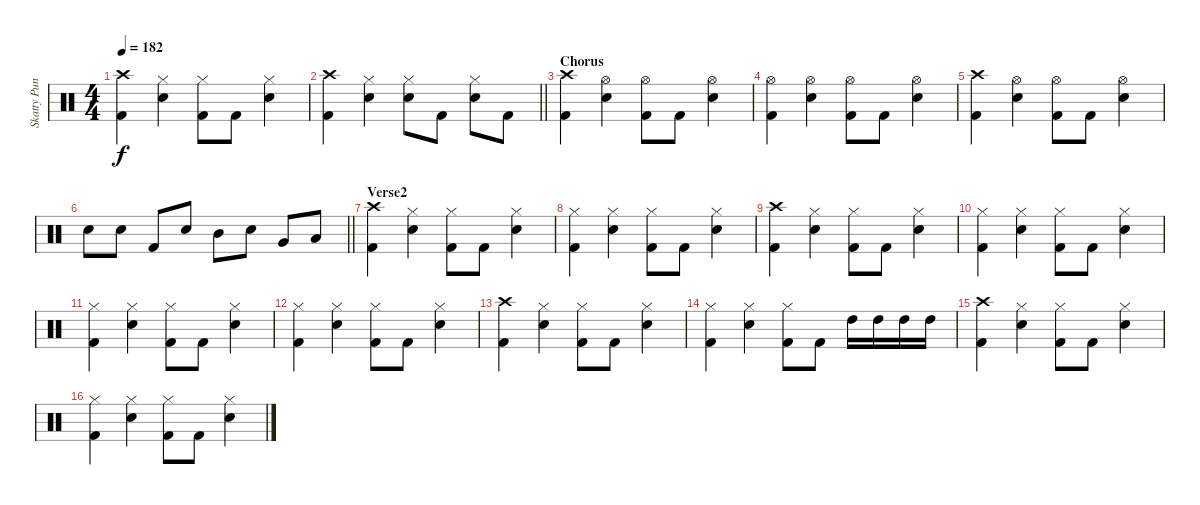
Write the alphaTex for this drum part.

\track ("Skatty Punk Rock" "Skatty Pun") {instrument percussion}
\staff {score}
\articulation defaults
\ts (4 4)
\tempo 182
\clef neutral
\ks c
("Kick (hit) 2" "Crash high (hit)").4{dy f} ("Snare (hit) 2" "Hi-Hat (closed)").4 ("Kick (hit) 2" "Hi-Hat (closed)").8 "Kick (hit) 2".8 ("Snare (hit) 2" "Hi-Hat (closed)").4 |
\barLineRight lightlight
("Kick (hit) 2" "Crash high (hit)").4 ("Snare (hit) 2" "Hi-Hat (closed)").4 ("Snare (hit) 2" "Hi-Hat (closed)").8 "Kick (hit) 2".8 ("Snare (hit) 2" "Hi-Hat (closed)").8 "Kick (hit) 2".8 |
\section ("" "Chorus")
("Kick (hit) 2" "Crash high (hit)").4 ("Snare (hit) 2" "Hi-Hat (open)").4 ("Kick (hit) 2" "Hi-Hat (open)").8 "Kick (hit) 2".8 ("Snare (hit) 2" "Hi-Hat (open)").4 |
("Kick (hit) 2" "Hi-Hat (open)").4 ("Snare (hit) 2" "Hi-Hat (open)").4 ("Kick (hit) 2" "Hi-Hat (open)").8 "Kick (hit) 2".8 ("Snare (hit) 2" "Hi-Hat (open)").4 |
("Kick (hit) 2" "Crash high (hit)").4 ("Snare (hit) 2" "Hi-Hat (open)").4 ("Kick (hit) 2" "Hi-Hat (open)").8 "Kick (hit) 2".8 ("Snare (hit) 2" "Hi-Hat (open)").4 |
\barLineRight lightlight "Snare (hit) 2".8 "Snare (hit) 2".8 "Kick (hit) 2".8 "Snare (hit) 2".8 "Mid Tom (hit)".8 "Snare (hit) 2".8 "Very Low Tom (hit)".8 "Low Floor Tom (hit)".8
|
\section ("" "Verse2")
("Kick (hit) 2" "Crash high (hit)").4 ("Snare (hit) 2" "Hi-Hat (closed)").4 ("Kick (hit) 2" "Hi-Hat (closed)").8 "Kick (hit) 2".8 ("Snare (hit) 2" "Hi-Hat (closed)").4 |
("Kick (hit) 2" "Hi-Hat (closed)").4 ("Snare (hit) 2" "Hi-Hat (closed)").4 ("Kick (hit) 2" "Hi-Hat (closed)").8 "Kick (hit) 2".8 ("Snare (hit) 2" "Hi-Hat (closed)").4 |
("Kick (hit) 2" "Crash high (hit)").4 ("Snare (hit) 2" "Hi-Hat (closed)").4 ("Kick (hit) 2" "Hi-Hat (closed)").8 "Kick (hit) 2".8 ("Snare (hit) 2" "Hi-Hat (closed)").4 |
("Kick (hit) 2" "Hi-Hat (closed)").4 ("Snare (hit) 2" "Hi-Hat (closed)").4 ("Kick (hit) 2" "Hi-Hat (closed)").8 "Kick (hit) 2".8 ("Snare (hit) 2" "Hi-Hat (closed)").4 |
("Kick (hit) 2" "Hi-Hat (closed)").4 ("Snare (hit) 2" "Hi-Hat (closed)").4 ("Kick (hit) 2" "Hi-Hat (closed)").8 "Kick (hit) 2".8 ("Snare (hit) 2" "Hi-Hat (closed)").4 |
("Kick (hit) 2" "Hi-Hat (closed)").4 ("Snare (hit) 2" "Hi-Hat (closed)").4 ("Kick (hit) 2" "Hi-Hat (closed)").8 "Kick (hit) 2".8 ("Snare (hit) 2" "Hi-Hat (closed)").4 |
("Kick (hit) 2" "Crash high (hit)").4 ("Snare (hit) 2" "Hi-Hat (closed)").4 ("Kick (hit) 2" "Hi-Hat (closed)").8 "Kick (hit) 2".8 ("Snare (hit) 2" "Hi-Hat (closed)").4 |
("Kick (hit) 2" "Hi-Hat (closed)").4 ("Snare (hit) 2" "Hi-Hat (closed)").4 ("Kick (hit) 2" "Hi-Hat (closed)").8 "Kick (hit) 2".8 "High Tom (hit)".16 "High Tom (hit)".16 "High Tom (hit)".16 "High Tom (hit)".16 |
("Kick (hit) 2" "Crash high (hit)").4 ("Snare (hit) 2" "Hi-Hat (closed)").4 ("Kick (hit) 2" "Hi-Hat (closed)").8 "Kick (hit) 2".8 ("Snare (hit) 2" "Hi-Hat (closed)").4 |
("Kick (hit) 2" "Hi-Hat (closed)").4 ("Snare (hit) 2" "Hi-Hat (closed)").4 ("Kick (hit) 2" "Hi-Hat (closed)").8 "Kick (hit) 2".8 ("Snare (hit) 2" "Hi-Hat (closed)").4
